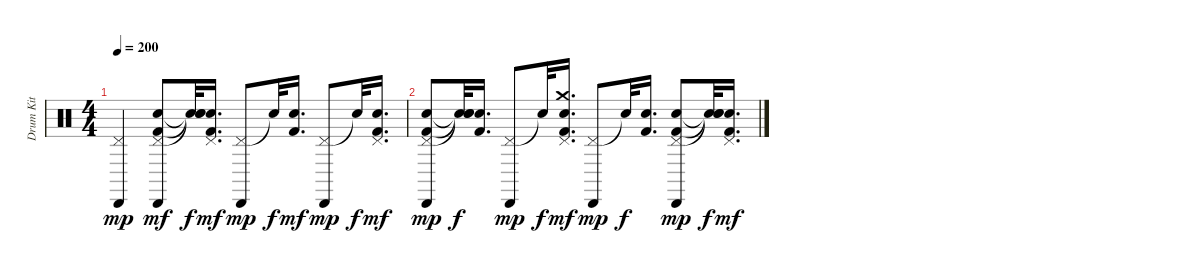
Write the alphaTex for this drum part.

\track ("Drum Kit" "Drum Kit") {instrument percussion}
\staff {score}
\articulation defaults
\ts (4 4)
\tempo 200
\clef neutral
\ks c
("Pedal Hi-Hat (hit)" "Cabasa (hit)").4{dy mp} ("Pedal Hi-Hat (hit)" "Kick (hit) 2" "Snare (hit) 2" "Cabasa (hit)").8{dy mf} ("Snare (hit)"{t} "Snare (hit)"{t} "Snare (hit)"{t}).32{dy f} ("Kick (hit) 2" "Snare (hit) 2" "Pedal Hi-Hat (hit)").16{d dy mf} ("Pedal Hi-Hat (hit)" "Cabasa (hit)").8{dy mp} "Snare (hit)"{t}.32{dy f} ("Kick (hit) 2" "Snare (hit) 2").16{d dy mf} ("Pedal Hi-Hat (hit)" "Cabasa (hit)").8{dy mp} "Snare (hit)"{t}.32{dy f} ("Kick (hit) 2" "Snare (hit) 2" "Pedal Hi-Hat (hit)").16{d dy mf} |
("Pedal Hi-Hat (hit)" "Kick (hit) 2" "Snare (hit) 2" "Cabasa (hit)").8{dy mp} ("Snare (hit)"{t} "Snare (hit)"{t} "Snare (hit)"{t}).32{dy f} ("Kick (hit) 2" "Snare (hit) 2").16{d} ("Pedal Hi-Hat (hit)" "Cabasa (hit)").8{dy mp} "Snare (hit)"{t}.32{dy f} ("Kick (hit) 2" "Snare (hit) 2" "Pedal Hi-Hat (hit)" "Crash medium (hit)").16{d dy mf} ("Pedal Hi-Hat (hit)" "Cabasa (hit)").8{dy mp} "Snare (hit)"{t}.32{dy f} ("Kick (hit) 2" "Snare (hit) 2").16{d} ("Pedal Hi-Hat (hit)" "Kick (hit) 2" "Snare (hit) 2" "Cabasa (hit)").8{dy mp} ("Snare (hit)"{t} "Snare (hit)"{t} "Snare (hit)"{t}).32{dy f} ("Kick (hit) 2" "Snare (hit) 2" "Pedal Hi-Hat (hit)").16{d dy mf}
